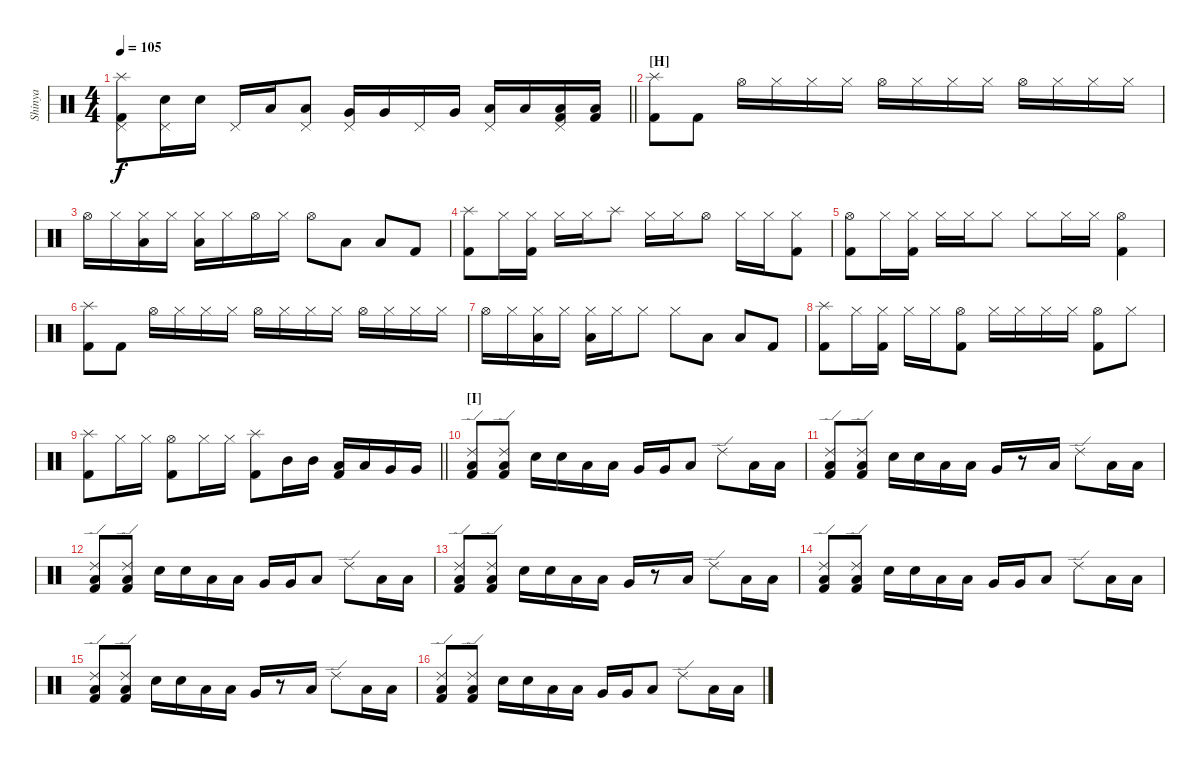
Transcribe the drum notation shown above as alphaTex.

\track ("Shinya" "Shinya") {instrument percussion}
\staff {score}
\articulation defaults
\ts (4 4)
\tempo 105
\clef neutral
\barLineRight lightlight
\ks c
("Splash (hit)" "Pedal Hi-Hat (hit)" "Kick (hit) 2").8{dy f} ("Snare (hit) 2" "Pedal Hi-Hat (hit)").16 "Snare (hit) 2".16 "Pedal Hi-Hat (hit)".16 "Low Tom (hit)".16 ("Low Tom (hit)" "Pedal Hi-Hat (hit)").8 ("Very Low Tom (hit)" "Pedal Hi-Hat (hit)").16 "Very Low Tom (hit)".16 "Pedal Hi-Hat (hit)".16 "Very Low Tom (hit)".16 ("Low Floor Tom (hit)" "Pedal Hi-Hat (hit)").16 "Low Floor Tom (hit)".16 ("Low Floor Tom (hit)" "Pedal Hi-Hat (hit)" "Kick (hit) 2").16 ("Low Floor Tom (hit)" "Kick (hit) 2").16 |
\section ("" "[H]")
("Splash (hit)" "Kick (hit) 2").8 "Kick (hit) 2".8 "Hi-Hat (open)".16 "Hi-Hat (closed)".16 "Hi-Hat (closed)".16 "Hi-Hat (closed)".16 "Hi-Hat (open)".16 "Hi-Hat (closed)".16 "Hi-Hat (closed)".16 "Hi-Hat (closed)".16 "Hi-Hat (open)".16 "Hi-Hat (closed)".16 "Hi-Hat (closed)".16 "Hi-Hat (closed)".16 |
"Hi-Hat (open)".16 "Hi-Hat (closed)".16 ("Hi-Hat (closed)" "Low Tom (hit)").16 "Hi-Hat (closed)".16 ("Hi-Hat (closed)" "Low Tom (hit)").16 "Hi-Hat (closed)".16 "Hi-Hat (open)".16 "Hi-Hat (closed)".16 "Hi-Hat (open)".8 "Low Tom (hit)".8 "Low Tom (hit)".8 "Kick (hit) 2".8 |
("Splash (hit)" "Kick (hit) 2").8 "Hi-Hat (closed)".16 ("Hi-Hat (closed)" "Kick (hit) 2").16 "Hi-Hat (closed)".16 "Hi-Hat (closed)".16 "Splash (hit)".8 "Hi-Hat (closed)".16 "Hi-Hat (closed)".16 "Hi-Hat (open)".8 "Hi-Hat (closed)".16 "Hi-Hat (closed)".16 ("Hi-Hat (closed)" "Kick (hit) 2").8 |
("Hi-Hat (open)" "Kick (hit) 2").8 "Hi-Hat (closed)".16 ("Hi-Hat (closed)" "Kick (hit) 2").16 "Hi-Hat (closed)".16 "Hi-Hat (closed)".16 "Hi-Hat (closed)".8 "Hi-Hat (closed)".8 "Hi-Hat (closed)".16 "Hi-Hat (closed)".16 ("Hi-Hat (open)" "Kick (hit) 2").4 |
("Splash (hit)" "Kick (hit) 2").8 "Kick (hit) 2".8 "Hi-Hat (open)".16 "Hi-Hat (closed)".16 "Hi-Hat (closed)".16 "Hi-Hat (closed)".16 "Hi-Hat (open)".16 "Hi-Hat (closed)".16 "Hi-Hat (closed)".16 "Hi-Hat (closed)".16 "Hi-Hat (open)".16 "Hi-Hat (closed)".16 "Hi-Hat (closed)".16 "Hi-Hat (closed)".16 |
"Hi-Hat (open)".16 "Hi-Hat (closed)".16 ("Hi-Hat (closed)" "Low Tom (hit)").16 "Hi-Hat (closed)".16 ("Hi-Hat (closed)" "Low Tom (hit)").16 "Hi-Hat (closed)".16 "Hi-Hat (closed)".8 "Hi-Hat (closed)".8 "Low Tom (hit)".8 "Low Tom (hit)".8 "Kick (hit) 2".8 |
("Splash (hit)" "Kick (hit) 2").8 "Hi-Hat (closed)".16 ("Hi-Hat (closed)" "Kick (hit) 2").16 "Hi-Hat (closed)".16 "Hi-Hat (closed)".16 ("Hi-Hat (open)" "Kick (hit) 2").8 "Hi-Hat (closed)".16 "Hi-Hat (closed)".16 "Hi-Hat (closed)".16 "Hi-Hat (closed)".16 ("Hi-Hat (open)" "Kick (hit) 2").8 "Hi-Hat (closed)".8 |
\barLineRight lightlight
("Splash (hit)" "Kick (hit) 2").8 "Hi-Hat (closed)".16 "Hi-Hat (closed)".16 ("Hi-Hat (open)" "Kick (hit) 2").8 "Hi-Hat (closed)".16 "Hi-Hat (closed)".16 ("Splash (hit)" "Kick (hit) 2").8 "Mid Tom (hit)".16 "Mid Tom (hit)".16 ("Low Tom (hit)" "Kick (hit) 2").16 "Low Tom (hit)".16 "Very Low Tom (hit)".16 "Very Low Tom (hit)".16 |
\section ("" "[I]")
("Ride (edge) 2" "Low Floor Tom (hit)" "Kick (hit) 2").8 ("Ride (edge) 2" "Low Floor Tom (hit)" "Kick (hit) 2").8 "Snare (hit) 2".16 "Snare (hit) 2".16 "Low Tom (hit)".16 "Low Tom (hit)".16 "Very Low Tom (hit)".16 "Very Low Tom (hit)".16 "Low Floor Tom (hit)".8 "Ride (edge) 2".8 "Low Tom (hit)".16 "Low Tom (hit)".16 |
("Ride (edge) 2" "Low Floor Tom (hit)" "Kick (hit) 2").8 ("Ride (edge) 2" "Low Floor Tom (hit)" "Kick (hit) 2").8 "Snare (hit) 2".16 "Snare (hit) 2".16 "Low Tom (hit)".16 "Low Tom (hit)".16 "Very Low Tom (hit)".16 r.8 "Low Floor Tom (hit)".16 "Ride (edge) 2".8 "Low Tom (hit)".16 "Low Tom (hit)".16 |
("Ride (edge) 2" "Low Floor Tom (hit)" "Kick (hit) 2").8 ("Ride (edge) 2" "Low Floor Tom (hit)" "Kick (hit) 2").8 "Snare (hit) 2".16 "Snare (hit) 2".16 "Low Tom (hit)".16 "Low Tom (hit)".16 "Very Low Tom (hit)".16 "Very Low Tom (hit)".16 "Low Floor Tom (hit)".8 "Ride (edge) 2".8 "Low Tom (hit)".16 "Low Tom (hit)".16 |
("Ride (edge) 2" "Low Floor Tom (hit)" "Kick (hit) 2").8 ("Ride (edge) 2" "Low Floor Tom (hit)" "Kick (hit) 2").8 "Snare (hit) 2".16 "Snare (hit) 2".16 "Low Tom (hit)".16 "Low Tom (hit)".16 "Very Low Tom (hit)".16 r.8 "Low Floor Tom (hit)".16 "Ride (edge) 2".8 "Low Tom (hit)".16 "Low Tom (hit)".16 |
("Ride (edge) 2" "Low Floor Tom (hit)" "Kick (hit) 2").8 ("Ride (edge) 2" "Low Floor Tom (hit)" "Kick (hit) 2").8 "Snare (hit) 2".16 "Snare (hit) 2".16 "Low Tom (hit)".16 "Low Tom (hit)".16 "Very Low Tom (hit)".16 "Very Low Tom (hit)".16 "Low Floor Tom (hit)".8 "Ride (edge) 2".8 "Low Tom (hit)".16 "Low Tom (hit)".16 |
("Ride (edge) 2" "Low Floor Tom (hit)" "Kick (hit) 2").8 ("Ride (edge) 2" "Low Floor Tom (hit)" "Kick (hit) 2").8 "Snare (hit) 2".16 "Snare (hit) 2".16 "Low Tom (hit)".16 "Low Tom (hit)".16 "Very Low Tom (hit)".16 r.8 "Low Floor Tom (hit)".16 "Ride (edge) 2".8 "Low Tom (hit)".16 "Low Tom (hit)".16 |
("Ride (edge) 2" "Low Floor Tom (hit)" "Kick (hit) 2").8 ("Ride (edge) 2" "Low Floor Tom (hit)" "Kick (hit) 2").8 "Snare (hit) 2".16 "Snare (hit) 2".16 "Low Tom (hit)".16 "Low Tom (hit)".16 "Very Low Tom (hit)".16 "Very Low Tom (hit)".16 "Low Floor Tom (hit)".8 "Ride (edge) 2".8 "Low Tom (hit)".16 "Low Tom (hit)".16
